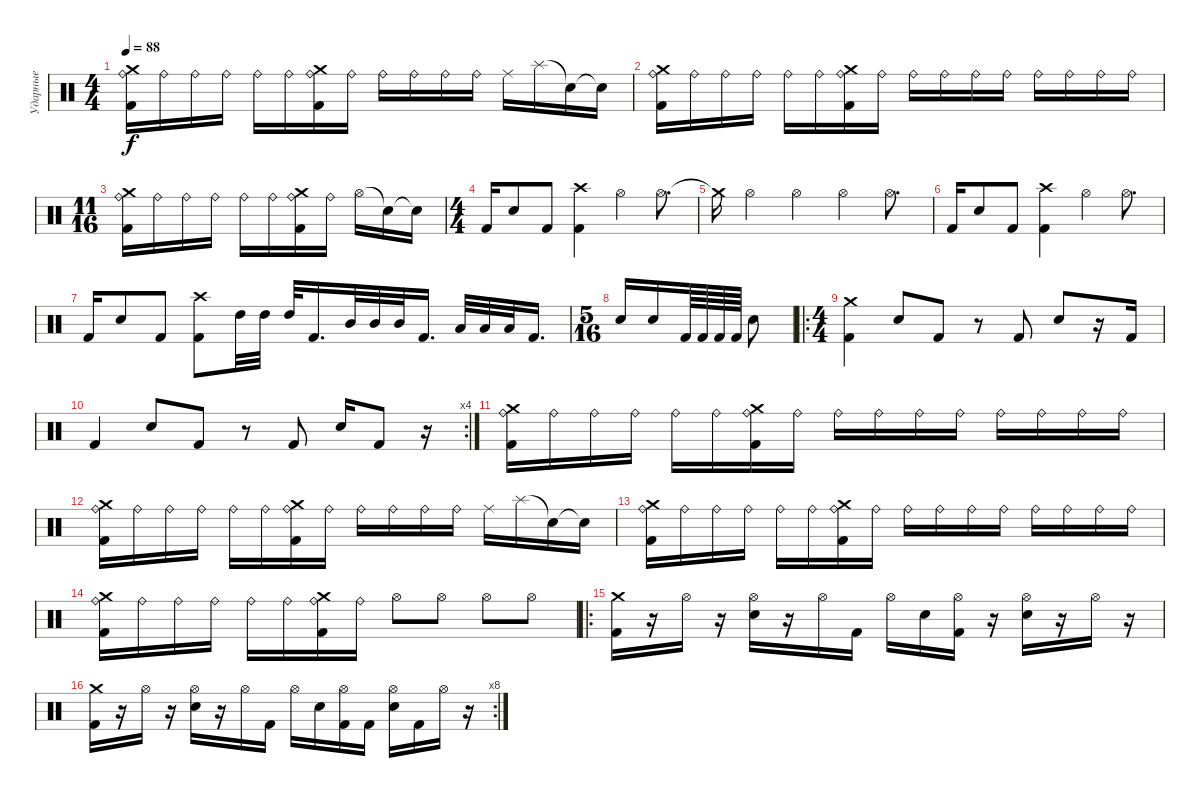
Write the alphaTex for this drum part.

\track ("Ударные" "Ударные") {instrument percussion}
\staff {score}
\articulation defaults
\ts (4 4)
\tempo 88
\clef neutral
\ks c
("Crash medium (hit)" "Ride (bell)" "Kick (hit) 2").16{dy f} "Ride (bell)".16 "Ride (bell)".16 "Ride (bell)".16 "Ride (bell)".16 "Ride (bell)".16 ("Crash medium (hit)" "Ride (bell)" "Kick (hit) 2").16 "Ride (bell)".16 "Ride (bell)".16 "Ride (bell)".16 "Ride (bell)".16 "Ride (bell)".16 "Ride (middle)".16 "Splash (hit)".16 "Snare (hit)"{t}.16 "Snare (hit)"{t}.16 |
("Crash medium (hit)" "Ride (bell)" "Kick (hit) 2").16 "Ride (bell)".16 "Ride (bell)".16 "Ride (bell)".16 "Ride (bell)".16 "Ride (bell)".16 ("Crash medium (hit)" "Ride (bell)" "Kick (hit) 2").16 "Ride (bell)".16 "Ride (bell)".16 "Ride (bell)".16 "Ride (bell)".16 "Ride (bell)".16 "Ride (bell)".16 "Ride (bell)".16 "Ride (bell)".16 "Ride (bell)".16 |
\ts (11 16)
("Crash medium (hit)" "Ride (bell)" "Kick (hit) 2").16 "Ride (bell)".16 "Ride (bell)".16 "Ride (bell)".16 "Ride (bell)".16 "Ride (bell)".16 ("Crash medium (hit)" "Ride (bell)" "Kick (hit) 2").16 "Ride (bell)".16 "Hi-Hat (open)".16 "Snare (hit)"{t}.16 "Snare (hit)"{t}.16 |
\ts (4 4)
"Kick (hit) 2".16 "Snare (hit) 2".8 "Kick (hit) 2".8 ("Crash high (hit)" "Kick (hit) 2").4 "Hi-Hat (open)".4 "Hi-Hat (open)".8{d} |
"Crash medium (hit)"{t}.16 "Hi-Hat (open)".4 "Hi-Hat (open)".4 "Hi-Hat (open)".4 "Hi-Hat (open)".8{d} |
"Kick (hit) 2".16 "Snare (hit) 2".8 "Kick (hit) 2".8 ("Crash high (hit)" "Kick (hit) 2").4 "Hi-Hat (open)".4 "Hi-Hat (open)".8{d} |
"Kick (hit) 2".16 "Snare (hit) 2".8 "Kick (hit) 2".8 ("Crash high (hit)" "Kick (hit) 2").8 "High Tom (hit)".32 "High Tom (hit)".32 "High Tom (hit)".32 "Kick (hit) 2".16{d} "Mid Tom (hit)".32 "Mid Tom (hit)".32 "Mid Tom (hit)".32 "Kick (hit) 2".16{d} "Low Tom (hit)".32 "Low Tom (hit)".32 "Low Tom (hit)".32 "Kick (hit) 2".16{d} |
\ts (5 16)
"Snare (hit) 2".16 "Snare (hit) 2".16 "Kick (hit) 2".64 "Kick (hit) 2".64 "Kick (hit) 2".64 "Kick (hit) 2".64 "Snare (hit) 2".8 |
\ro
\ts (4 4)
("Crash medium (hit)" "Kick (hit) 2").4 "Snare (hit) 2".8 "Kick (hit) 2".8 r.8 "Kick (hit) 2".8 "Snare (hit) 2".8 r.16 "Kick (hit) 2".16 |
\rc 4 "Kick (hit) 2".4 "Snare (hit) 2".8 "Kick (hit) 2".8
r.8 "Kick (hit) 2".8 "Snare (hit) 2".16 "Kick (hit) 2".8 r.16 |
("Crash medium (hit)" "Ride (bell)" "Kick (hit) 2").16 "Ride (bell)".16 "Ride (bell)".16 "Ride (bell)".16 "Ride (bell)".16 "Ride (bell)".16 ("Crash medium (hit)" "Ride (bell)" "Kick (hit) 2").16 "Ride (bell)".16 "Ride (bell)".16 "Ride (bell)".16 "Ride (bell)".16 "Ride (bell)".16 "Ride (bell)".16 "Ride (bell)".16 "Ride (bell)".16 "Ride (bell)".16 |
("Crash medium (hit)" "Ride (bell)" "Kick (hit) 2").16 "Ride (bell)".16 "Ride (bell)".16 "Ride (bell)".16 "Ride (bell)".16 "Ride (bell)".16 ("Crash medium (hit)" "Ride (bell)" "Kick (hit) 2").16 "Ride (bell)".16 "Ride (bell)".16 "Ride (bell)".16 "Ride (bell)".16 "Ride (bell)".16 "Ride (middle)".16 "Splash (hit)".16 "Snare (hit)"{t}.16 "Snare (hit)"{t}.16 |
("Crash medium (hit)" "Ride (bell)" "Kick (hit) 2").16 "Ride (bell)".16 "Ride (bell)".16 "Ride (bell)".16 "Ride (bell)".16 "Ride (bell)".16 ("Crash medium (hit)" "Ride (bell)" "Kick (hit) 2").16 "Ride (bell)".16 "Ride (bell)".16 "Ride (bell)".16 "Ride (bell)".16 "Ride (bell)".16 "Ride (bell)".16 "Ride (bell)".16 "Ride (bell)".16 "Ride (bell)".16 |
("Crash medium (hit)" "Ride (bell)" "Kick (hit) 2").16 "Ride (bell)".16 "Ride (bell)".16 "Ride (bell)".16 "Ride (bell)".16 "Ride (bell)".16 ("Crash medium (hit)" "Ride (bell)" "Kick (hit) 2").16 "Ride (bell)".16 "Hi-Hat (open)".8 "Hi-Hat (open)".8 "Hi-Hat (open)".8 "Hi-Hat (open)".8 |
\ro
("Crash medium (hit)" "Kick (hit) 2").16 r.16 "Hi-Hat (open)".16 r.16 ("Hi-Hat (open)" "Snare (hit) 2").16 r.16 "Hi-Hat (open)".16 "Kick (hit) 2".16 "Hi-Hat (open)".16 "Snare (hit) 2".16 ("Hi-Hat (open)" "Kick (hit) 2").16 r.16 ("Hi-Hat (open)" "Snare (hit) 2").16 r.16 "Hi-Hat (open)".16 r.16 |
\rc 8
("Crash medium (hit)" "Kick (hit) 2").16 r.16 "Hi-Hat (open)".16 r.16 ("Hi-Hat (open)" "Snare (hit) 2").16 r.16 "Hi-Hat (open)".16 "Kick (hit) 2".16 "Hi-Hat (open)".16 "Snare (hit) 2".16 ("Hi-Hat (open)" "Kick (hit) 2").16 "Kick (hit) 2".16 ("Hi-Hat (open)" "Snare (hit) 2").16 "Kick (hit) 2".16 "Hi-Hat (open)".16 r.16
